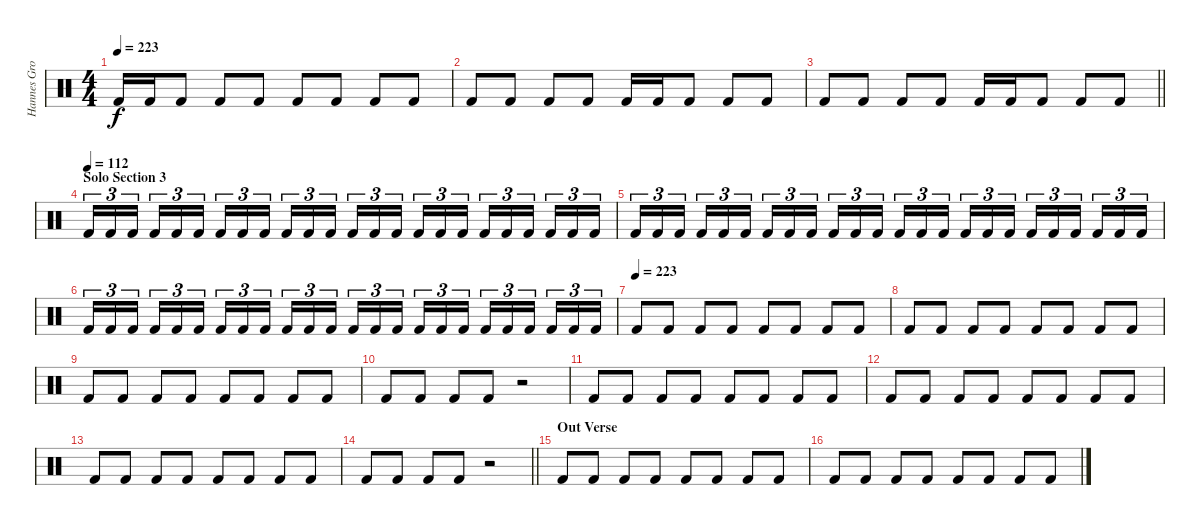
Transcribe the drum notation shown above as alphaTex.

\track ("Hannes Grossmann" "Hannes Gro") {instrument percussion}
\staff {score}
\articulation defaults
\ts (4 4)
\tempo 223
\clef neutral
\ks c "Kick (hit) 2".16{dy f} "Kick (hit) 2".16 "Kick (hit) 2".8 "Kick (hit) 2".8 "Kick (hit) 2".8 "Kick (hit) 2".8 "Kick (hit) 2".8 "Kick (hit) 2".8 "Kick (hit) 2".8
|
"Kick (hit) 2".8 "Kick (hit) 2".8 "Kick (hit) 2".8 "Kick (hit) 2".8 "Kick (hit) 2".16 "Kick (hit) 2".16 "Kick (hit) 2".8 "Kick (hit) 2".8 "Kick (hit) 2".8 |
\barLineRight lightlight "Kick (hit) 2".8 "Kick (hit) 2".8 "Kick (hit) 2".8 "Kick (hit) 2".8 "Kick (hit) 2".16 "Kick (hit) 2".16 "Kick (hit) 2".8 "Kick (hit) 2".8 "Kick (hit) 2".8
|
\section ("" "Solo Section 3")
\tempo (112)
"Kick (hit) 2".16{tu (3 2)} "Kick (hit) 2".16{tu (3 2)} "Kick (hit) 2".16{tu (3 2) beam splitsecondary} "Kick (hit) 2".16{tu (3 2)} "Kick (hit) 2".16{tu (3 2)} "Kick (hit) 2".16{tu (3 2)} "Kick (hit) 2".16{tu (3 2)} "Kick (hit) 2".16{tu (3 2)} "Kick (hit) 2".16{tu (3 2) beam splitsecondary} "Kick (hit) 2".16{tu (3 2)} "Kick (hit) 2".16{tu (3 2)} "Kick (hit) 2".16{tu (3 2)} "Kick (hit) 2".16{tu (3 2)} "Kick (hit) 2".16{tu (3 2)} "Kick (hit) 2".16{tu (3 2) beam splitsecondary} "Kick (hit) 2".16{tu (3 2)} "Kick (hit) 2".16{tu (3 2)} "Kick (hit) 2".16{tu (3 2)} "Kick (hit) 2".16{tu (3 2)} "Kick (hit) 2".16{tu (3 2)} "Kick (hit) 2".16{tu (3 2) beam splitsecondary} "Kick (hit) 2".16{tu (3 2)} "Kick (hit) 2".16{tu (3 2)} "Kick (hit) 2".16{tu (3 2)} |
"Kick (hit) 2".16{tu (3 2)} "Kick (hit) 2".16{tu (3 2)} "Kick (hit) 2".16{tu (3 2) beam splitsecondary} "Kick (hit) 2".16{tu (3 2)} "Kick (hit) 2".16{tu (3 2)} "Kick (hit) 2".16{tu (3 2)} "Kick (hit) 2".16{tu (3 2)} "Kick (hit) 2".16{tu (3 2)} "Kick (hit) 2".16{tu (3 2) beam splitsecondary} "Kick (hit) 2".16{tu (3 2)} "Kick (hit) 2".16{tu (3 2)} "Kick (hit) 2".16{tu (3 2)} "Kick (hit) 2".16{tu (3 2)} "Kick (hit) 2".16{tu (3 2)} "Kick (hit) 2".16{tu (3 2) beam splitsecondary} "Kick (hit) 2".16{tu (3 2)} "Kick (hit) 2".16{tu (3 2)} "Kick (hit) 2".16{tu (3 2)} "Kick (hit) 2".16{tu (3 2)} "Kick (hit) 2".16{tu (3 2)} "Kick (hit) 2".16{tu (3 2) beam splitsecondary} "Kick (hit) 2".16{tu (3 2)} "Kick (hit) 2".16{tu (3 2)} "Kick (hit) 2".16{tu (3 2)} |
"Kick (hit) 2".16{tu (3 2)} "Kick (hit) 2".16{tu (3 2)} "Kick (hit) 2".16{tu (3 2) beam splitsecondary} "Kick (hit) 2".16{tu (3 2)} "Kick (hit) 2".16{tu (3 2)} "Kick (hit) 2".16{tu (3 2)} "Kick (hit) 2".16{tu (3 2)} "Kick (hit) 2".16{tu (3 2)} "Kick (hit) 2".16{tu (3 2) beam splitsecondary} "Kick (hit) 2".16{tu (3 2)} "Kick (hit) 2".16{tu (3 2)} "Kick (hit) 2".16{tu (3 2)} "Kick (hit) 2".16{tu (3 2)} "Kick (hit) 2".16{tu (3 2)} "Kick (hit) 2".16{tu (3 2) beam splitsecondary} "Kick (hit) 2".16{tu (3 2)} "Kick (hit) 2".16{tu (3 2)} "Kick (hit) 2".16{tu (3 2)} "Kick (hit) 2".16{tu (3 2)} "Kick (hit) 2".16{tu (3 2)} "Kick (hit) 2".16{tu (3 2) beam splitsecondary} "Kick (hit) 2".16{tu (3 2)} "Kick (hit) 2".16{tu (3 2)} "Kick (hit) 2".16{tu (3 2)} |
\tempo (223)
"Kick (hit) 2".8 "Kick (hit) 2".8 "Kick (hit) 2".8 "Kick (hit) 2".8 "Kick (hit) 2".8 "Kick (hit) 2".8 "Kick (hit) 2".8 "Kick (hit) 2".8 |
"Kick (hit) 2".8 "Kick (hit) 2".8 "Kick (hit) 2".8 "Kick (hit) 2".8 "Kick (hit) 2".8 "Kick (hit) 2".8 "Kick (hit) 2".8 "Kick (hit) 2".8 |
"Kick (hit) 2".8 "Kick (hit) 2".8 "Kick (hit) 2".8 "Kick (hit) 2".8 "Kick (hit) 2".8 "Kick (hit) 2".8 "Kick (hit) 2".8 "Kick (hit) 2".8 |
"Kick (hit) 2".8 "Kick (hit) 2".8 "Kick (hit) 2".8 "Kick (hit) 2".8 r.2 |
"Kick (hit) 2".8 "Kick (hit) 2".8 "Kick (hit) 2".8 "Kick (hit) 2".8 "Kick (hit) 2".8 "Kick (hit) 2".8 "Kick (hit) 2".8 "Kick (hit) 2".8 |
"Kick (hit) 2".8 "Kick (hit) 2".8 "Kick (hit) 2".8 "Kick (hit) 2".8 "Kick (hit) 2".8 "Kick (hit) 2".8 "Kick (hit) 2".8 "Kick (hit) 2".8 |
"Kick (hit) 2".8 "Kick (hit) 2".8 "Kick (hit) 2".8 "Kick (hit) 2".8 "Kick (hit) 2".8 "Kick (hit) 2".8 "Kick (hit) 2".8 "Kick (hit) 2".8 |
\barLineRight lightlight "Kick (hit) 2".8 "Kick (hit) 2".8 "Kick (hit) 2".8 "Kick (hit) 2".8
r.2 |
\section ("" "Out Verse")
"Kick (hit) 2".8 "Kick (hit) 2".8 "Kick (hit) 2".8 "Kick (hit) 2".8 "Kick (hit) 2".8 "Kick (hit) 2".8 "Kick (hit) 2".8 "Kick (hit) 2".8 |
"Kick (hit) 2".8 "Kick (hit) 2".8 "Kick (hit) 2".8 "Kick (hit) 2".8 "Kick (hit) 2".8 "Kick (hit) 2".8 "Kick (hit) 2".8 "Kick (hit) 2".8
